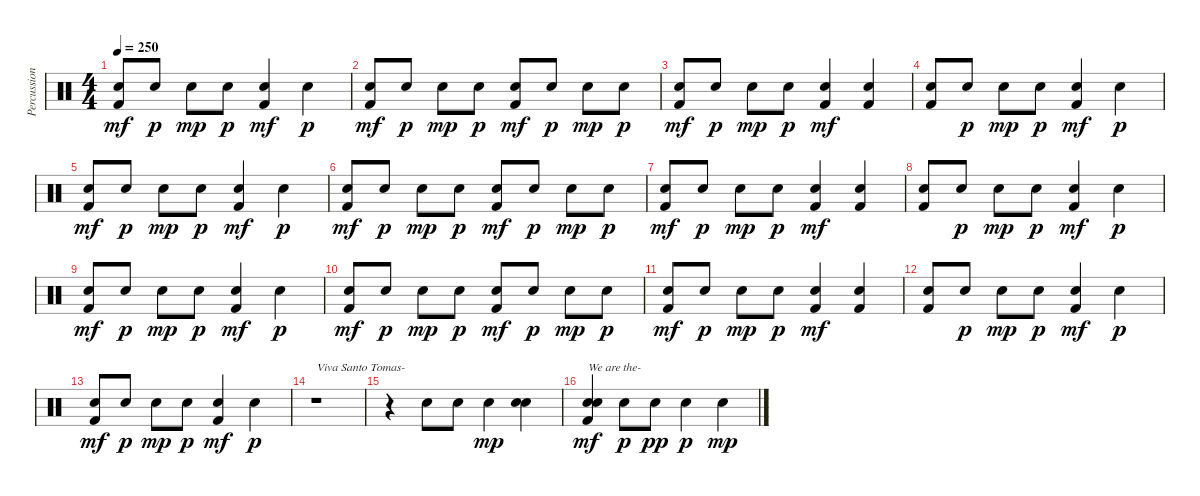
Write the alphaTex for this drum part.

\track ("Percussion" "Percussion") {instrument percussion}
\staff {score}
\articulation defaults
\ts (4 4)
\tempo 250
\clef neutral
\ks c
("Snare (hit) 2" "Kick (hit) 2").8{dy mf} "Snare (hit) 2".8{dy p} "Snare (hit) 2".8{dy mp} "Snare (hit) 2".8{dy p} ("Snare (hit) 2" "Kick (hit) 2").4{dy mf} "Snare (hit) 2".4{dy p} |
("Snare (hit) 2" "Kick (hit) 2").8{dy mf} "Snare (hit) 2".8{dy p} "Snare (hit) 2".8{dy mp} "Snare (hit) 2".8{dy p} ("Snare (hit) 2" "Kick (hit) 2").8{dy mf} "Snare (hit) 2".8{dy p} "Snare (hit) 2".8{dy mp} "Snare (hit) 2".8{dy p} |
("Snare (hit) 2" "Kick (hit) 2").8{dy mf} "Snare (hit) 2".8{dy p} "Snare (hit) 2".8{dy mp} "Snare (hit) 2".8{dy p} ("Snare (hit) 2" "Kick (hit) 2").4{dy mf} ("Snare (hit) 2" "Kick (hit) 2").4 |
("Snare (hit) 2" "Kick (hit) 2").8 "Snare (hit) 2".8{dy p} "Snare (hit) 2".8{dy mp} "Snare (hit) 2".8{dy p} ("Snare (hit) 2" "Kick (hit) 2").4{dy mf} "Snare (hit) 2".4{dy p} |
("Snare (hit) 2" "Kick (hit) 2").8{dy mf} "Snare (hit) 2".8{dy p} "Snare (hit) 2".8{dy mp} "Snare (hit) 2".8{dy p} ("Snare (hit) 2" "Kick (hit) 2").4{dy mf} "Snare (hit) 2".4{dy p} |
("Snare (hit) 2" "Kick (hit) 2").8{dy mf} "Snare (hit) 2".8{dy p} "Snare (hit) 2".8{dy mp} "Snare (hit) 2".8{dy p} ("Snare (hit) 2" "Kick (hit) 2").8{dy mf} "Snare (hit) 2".8{dy p} "Snare (hit) 2".8{dy mp} "Snare (hit) 2".8{dy p} |
("Snare (hit) 2" "Kick (hit) 2").8{dy mf} "Snare (hit) 2".8{dy p} "Snare (hit) 2".8{dy mp} "Snare (hit) 2".8{dy p} ("Snare (hit) 2" "Kick (hit) 2").4{dy mf} ("Snare (hit) 2" "Kick (hit) 2").4 |
("Snare (hit) 2" "Kick (hit) 2").8 "Snare (hit) 2".8{dy p} "Snare (hit) 2".8{dy mp} "Snare (hit) 2".8{dy p} ("Snare (hit) 2" "Kick (hit) 2").4{dy mf} "Snare (hit) 2".4{dy p} |
("Snare (hit) 2" "Kick (hit) 2").8{dy mf} "Snare (hit) 2".8{dy p} "Snare (hit) 2".8{dy mp} "Snare (hit) 2".8{dy p} ("Snare (hit) 2" "Kick (hit) 2").4{dy mf} "Snare (hit) 2".4{dy p} |
("Snare (hit) 2" "Kick (hit) 2").8{dy mf} "Snare (hit) 2".8{dy p} "Snare (hit) 2".8{dy mp} "Snare (hit) 2".8{dy p} ("Snare (hit) 2" "Kick (hit) 2").8{dy mf} "Snare (hit) 2".8{dy p} "Snare (hit) 2".8{dy mp} "Snare (hit) 2".8{dy p} |
("Snare (hit) 2" "Kick (hit) 2").8{dy mf} "Snare (hit) 2".8{dy p} "Snare (hit) 2".8{dy mp} "Snare (hit) 2".8{dy p} ("Snare (hit) 2" "Kick (hit) 2").4{dy mf} ("Snare (hit) 2" "Kick (hit) 2").4 |
("Snare (hit) 2" "Kick (hit) 2").8 "Snare (hit) 2".8{dy p} "Snare (hit) 2".8{dy mp} "Snare (hit) 2".8{dy p} ("Snare (hit) 2" "Kick (hit) 2").4{dy mf} "Snare (hit) 2".4{dy p} |
("Snare (hit) 2" "Kick (hit) 2").8{dy mf} "Snare (hit) 2".8{dy p} "Snare (hit) 2".8{dy mp} "Snare (hit) 2".8{dy p} ("Snare (hit) 2" "Kick (hit) 2").4{dy mf} "Snare (hit) 2".4{dy p} |
r.1{txt "Viva Santo Tomas-"} |
r.4 "Snare (hit) 2".8 "Snare (hit) 2".8 "Snare (hit) 2".4{dy mp} ("Snare (hit) 2" "Snare (hit) 2").4 |
("Snare (hit) 2" "Snare (hit) 2" "Kick (hit) 2").4{txt "We are the-" dy mf} "Snare (hit) 2".8{dy p} "Snare (hit) 2".8{dy pp} "Snare (hit) 2".4{dy p} "Snare (hit) 2".4{dy mp}
